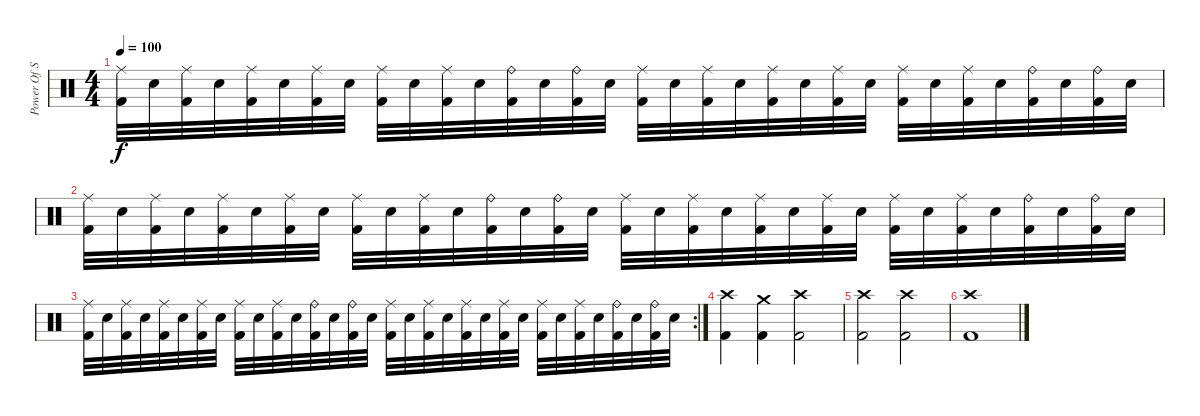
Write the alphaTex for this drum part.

\track ("Power Of Steel" "Power Of S") {instrument percussion}
\staff {score}
\articulation defaults
\ts (4 4)
\tempo 100
\clef neutral
\ks c
("Ride (middle)" "Kick (hit) 2").32{dy f} "Electric Snare (hit)".32 ("Ride (middle)" "Kick (hit) 2").32 "Electric Snare (hit)".32 ("Ride (middle)" "Kick (hit) 2").32 "Electric Snare (hit)".32 ("Ride (middle)" "Kick (hit) 2").32 "Electric Snare (hit)".32 ("Ride (middle)" "Kick (hit) 2").32 "Electric Snare (hit)".32 ("Ride (middle)" "Kick (hit) 2").32 "Electric Snare (hit)".32 ("Ride (bell)" "Kick (hit) 2").32 "Electric Snare (hit)".32 ("Ride (bell)" "Kick (hit) 2").32 "Electric Snare (hit)".32 ("Ride (middle)" "Kick (hit) 2").32 "Electric Snare (hit)".32 ("Ride (middle)" "Kick (hit) 2").32 "Electric Snare (hit)".32 ("Ride (middle)" "Kick (hit) 2").32 "Electric Snare (hit)".32 ("Ride (middle)" "Kick (hit) 2").32 "Electric Snare (hit)".32 ("Ride (middle)" "Kick (hit) 2").32 "Electric Snare (hit)".32 ("Ride (middle)" "Kick (hit) 2").32 "Electric Snare (hit)".32 ("Ride (bell)" "Kick (hit) 2").32 "Electric Snare (hit)".32 ("Ride (bell)" "Kick (hit) 2").32 "Electric Snare (hit)".32 |
("Ride (middle)" "Kick (hit) 2").32 "Electric Snare (hit)".32 ("Ride (middle)" "Kick (hit) 2").32 "Electric Snare (hit)".32 ("Ride (middle)" "Kick (hit) 2").32 "Electric Snare (hit)".32 ("Ride (middle)" "Kick (hit) 2").32 "Electric Snare (hit)".32 ("Ride (middle)" "Kick (hit) 2").32 "Electric Snare (hit)".32 ("Ride (middle)" "Kick (hit) 2").32 "Electric Snare (hit)".32 ("Ride (bell)" "Kick (hit) 2").32 "Electric Snare (hit)".32 ("Ride (bell)" "Kick (hit) 2").32 "Electric Snare (hit)".32 ("Ride (middle)" "Kick (hit) 2").32 "Electric Snare (hit)".32 ("Ride (middle)" "Kick (hit) 2").32 "Electric Snare (hit)".32 ("Ride (middle)" "Kick (hit) 2").32 "Electric Snare (hit)".32 ("Ride (middle)" "Kick (hit) 2").32 "Electric Snare (hit)".32 ("Ride (middle)" "Kick (hit) 2").32 "Electric Snare (hit)".32 ("Ride (middle)" "Kick (hit) 2").32 "Electric Snare (hit)".32 ("Ride (bell)" "Kick (hit) 2").32 "Electric Snare (hit)".32 ("Ride (bell)" "Kick (hit) 2").32 "Electric Snare (hit)".32 |
\rc 2
("Ride (middle)" "Kick (hit) 2").32 "Electric Snare (hit)".32 ("Ride (middle)" "Kick (hit) 2").32 "Electric Snare (hit)".32 ("Ride (middle)" "Kick (hit) 2").32 "Electric Snare (hit)".32 ("Ride (middle)" "Kick (hit) 2").32 "Electric Snare (hit)".32 ("Ride (middle)" "Kick (hit) 2").32 "Electric Snare (hit)".32 ("Ride (middle)" "Kick (hit) 2").32 "Electric Snare (hit)".32 ("Ride (bell)" "Kick (hit) 2").32 "Electric Snare (hit)".32 ("Ride (bell)" "Kick (hit) 2").32 "Electric Snare (hit)".32 ("Ride (middle)" "Kick (hit) 2").32 "Electric Snare (hit)".32 ("Ride (middle)" "Kick (hit) 2").32 "Electric Snare (hit)".32 ("Ride (middle)" "Kick (hit) 2").32 "Electric Snare (hit)".32 ("Ride (middle)" "Kick (hit) 2").32 "Electric Snare (hit)".32 ("Ride (middle)" "Kick (hit) 2").32 "Electric Snare (hit)".32 ("Ride (middle)" "Kick (hit) 2").32 "Electric Snare (hit)".32 ("Ride (bell)" "Kick (hit) 2").32 "Electric Snare (hit)".32 ("Ride (bell)" "Kick (hit) 2").32 "Electric Snare (hit)".32 |
("Crash high (hit)" "Kick (hit) 2").4 ("Crash medium (hit)" "Kick (hit) 2").4 ("Crash high (hit)" "Kick (hit) 2").2 |
("Crash high (hit)" "Kick (hit) 2").2 ("Crash high (hit)" "Kick (hit) 2").2 |
("Crash high (hit)" "Kick (hit) 2").1
